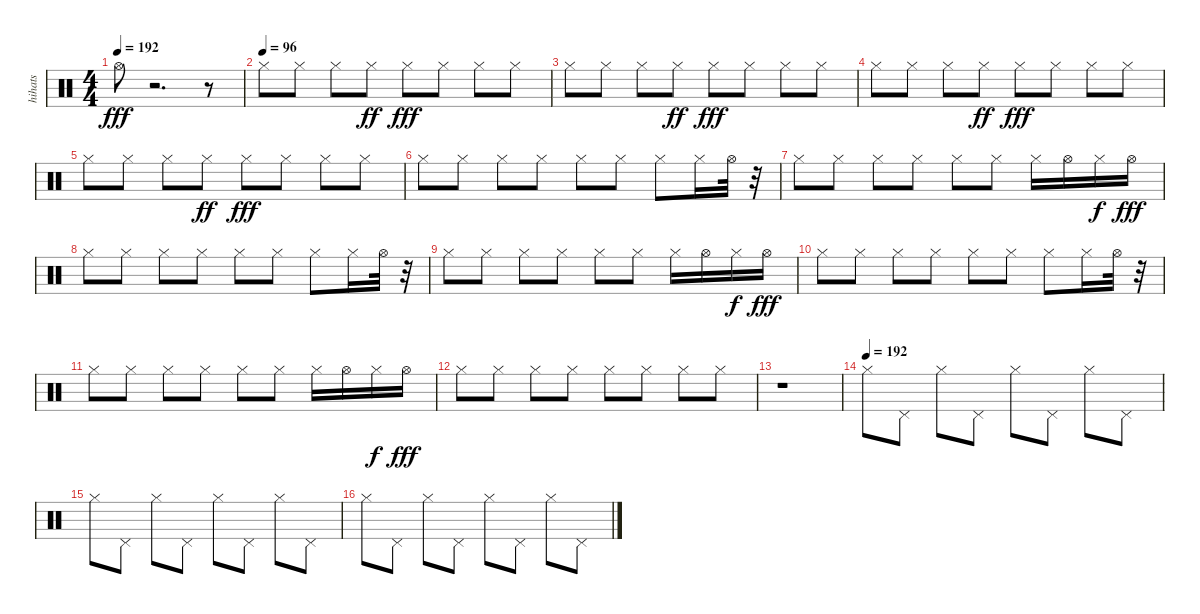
\track ("hihats" "hihats") {instrument percussion}
\staff {score}
\articulation defaults
\ts (4 4)
\tempo 192
\clef neutral
\ks c "Hi-Hat (open)".8{dy fff}
r.2{d} r.8 |
\tempo (96)
"Hi-Hat (closed)".8 "Hi-Hat (closed)".8 "Hi-Hat (closed)".8 "Hi-Hat (closed)".8{dy ff} "Hi-Hat (closed)".8{dy fff} "Hi-Hat (closed)".8 "Hi-Hat (closed)".8 "Hi-Hat (closed)".8 |
"Hi-Hat (closed)".8 "Hi-Hat (closed)".8 "Hi-Hat (closed)".8 "Hi-Hat (closed)".8{dy ff} "Hi-Hat (closed)".8{dy fff} "Hi-Hat (closed)".8 "Hi-Hat (closed)".8 "Hi-Hat (closed)".8 |
"Hi-Hat (closed)".8 "Hi-Hat (closed)".8 "Hi-Hat (closed)".8 "Hi-Hat (closed)".8{dy ff} "Hi-Hat (closed)".8{dy fff} "Hi-Hat (closed)".8 "Hi-Hat (closed)".8 "Hi-Hat (closed)".8 |
"Hi-Hat (closed)".8 "Hi-Hat (closed)".8 "Hi-Hat (closed)".8 "Hi-Hat (closed)".8{dy ff} "Hi-Hat (closed)".8{dy fff} "Hi-Hat (closed)".8 "Hi-Hat (closed)".8 "Hi-Hat (closed)".8 |
"Hi-Hat (closed)".8 "Hi-Hat (closed)".8 "Hi-Hat (closed)".8 "Hi-Hat (closed)".8 "Hi-Hat (closed)".8 "Hi-Hat (closed)".8 "Hi-Hat (closed)".8 "Hi-Hat (closed)".16 "Hi-Hat (open)".32 r.32 |
"Hi-Hat (closed)".8 "Hi-Hat (closed)".8 "Hi-Hat (closed)".8 "Hi-Hat (closed)".8 "Hi-Hat (closed)".8 "Hi-Hat (closed)".8 "Hi-Hat (closed)".16 "Hi-Hat (open)".16 "Hi-Hat (closed)".16{dy f} "Hi-Hat (open)".16{dy fff} |
"Hi-Hat (closed)".8 "Hi-Hat (closed)".8 "Hi-Hat (closed)".8 "Hi-Hat (closed)".8 "Hi-Hat (closed)".8 "Hi-Hat (closed)".8 "Hi-Hat (closed)".8 "Hi-Hat (closed)".16 "Hi-Hat (open)".32 r.32 |
"Hi-Hat (closed)".8 "Hi-Hat (closed)".8 "Hi-Hat (closed)".8 "Hi-Hat (closed)".8 "Hi-Hat (closed)".8 "Hi-Hat (closed)".8 "Hi-Hat (closed)".16 "Hi-Hat (open)".16 "Hi-Hat (closed)".16{dy f} "Hi-Hat (open)".16{dy fff} |
"Hi-Hat (closed)".8 "Hi-Hat (closed)".8 "Hi-Hat (closed)".8 "Hi-Hat (closed)".8 "Hi-Hat (closed)".8 "Hi-Hat (closed)".8 "Hi-Hat (closed)".8 "Hi-Hat (closed)".16 "Hi-Hat (open)".32 r.32 |
"Hi-Hat (closed)".8 "Hi-Hat (closed)".8 "Hi-Hat (closed)".8 "Hi-Hat (closed)".8 "Hi-Hat (closed)".8 "Hi-Hat (closed)".8 "Hi-Hat (closed)".16 "Hi-Hat (open)".16 "Hi-Hat (closed)".16{dy f} "Hi-Hat (open)".16{dy fff} |
"Hi-Hat (closed)".8 "Hi-Hat (closed)".8 "Hi-Hat (closed)".8 "Hi-Hat (closed)".8 "Hi-Hat (closed)".8 "Hi-Hat (closed)".8 "Hi-Hat (closed)".8 "Hi-Hat (closed)".8 |
r.1 |
\tempo (192)
"Hi-Hat (closed)".8 "Pedal Hi-Hat (hit)".8 "Hi-Hat (closed)".8 "Pedal Hi-Hat (hit)".8 "Hi-Hat (closed)".8 "Pedal Hi-Hat (hit)".8 "Hi-Hat (closed)".8 "Pedal Hi-Hat (hit)".8 |
"Hi-Hat (closed)".8 "Pedal Hi-Hat (hit)".8 "Hi-Hat (closed)".8 "Pedal Hi-Hat (hit)".8 "Hi-Hat (closed)".8 "Pedal Hi-Hat (hit)".8 "Hi-Hat (closed)".8 "Pedal Hi-Hat (hit)".8 |
"Hi-Hat (closed)".8 "Pedal Hi-Hat (hit)".8 "Hi-Hat (closed)".8 "Pedal Hi-Hat (hit)".8 "Hi-Hat (closed)".8 "Pedal Hi-Hat (hit)".8 "Hi-Hat (closed)".8 "Pedal Hi-Hat (hit)".8
